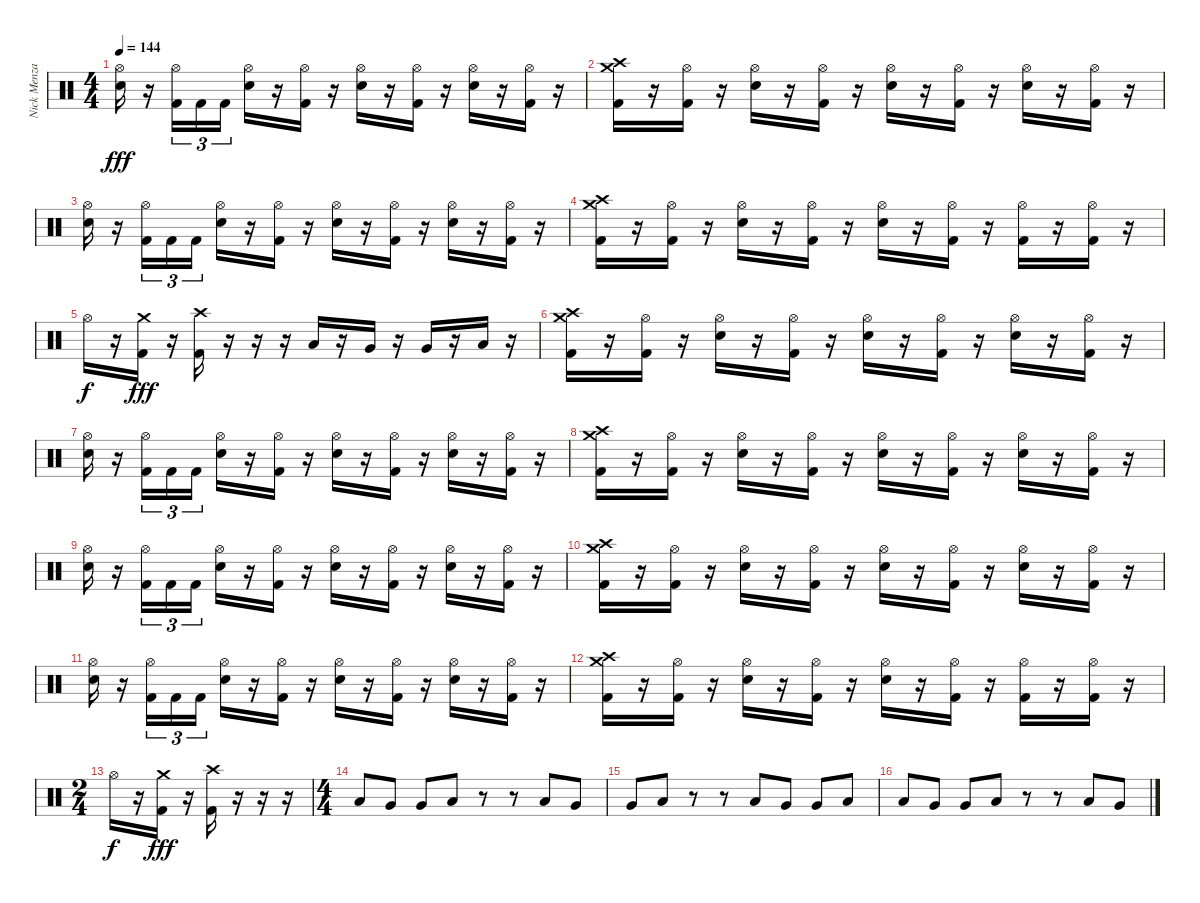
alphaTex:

\track ("Nick Menza" "Nick Menza") {instrument percussion}
\staff {score}
\articulation defaults
\ts (4 4)
\tempo 144
\clef neutral
\ks c
("Electric Snare (hit)" "Hi-Hat (open)").16{dy fff} r.16 ("Kick (hit) 2" "Hi-Hat (open)").16{tu (3 2)} "Kick (hit) 2".16{tu (3 2)} "Kick (hit) 2".16{tu (3 2)} ("Electric Snare (hit)" "Hi-Hat (open)").16 r.16 ("Kick (hit) 2" "Hi-Hat (open)").16 r.16 ("Electric Snare (hit)" "Hi-Hat (open)").16 r.16 ("Kick (hit) 2" "Hi-Hat (open)").16 r.16 ("Electric Snare (hit)" "Hi-Hat (open)").16 r.16 ("Kick (hit) 2" "Hi-Hat (open)").16 r.16 |
("Kick (hit) 2" "Crash high (hit)" "Crash medium (hit)").16 r.16 ("Kick (hit) 2" "Hi-Hat (open)").16 r.16 ("Electric Snare (hit)" "Hi-Hat (open)").16 r.16 ("Kick (hit) 2" "Hi-Hat (open)").16 r.16 ("Electric Snare (hit)" "Hi-Hat (open)").16 r.16 ("Kick (hit) 2" "Hi-Hat (open)").16 r.16 ("Electric Snare (hit)" "Hi-Hat (open)").16 r.16 ("Kick (hit) 2" "Hi-Hat (open)").16 r.16 |
("Electric Snare (hit)" "Hi-Hat (open)").16 r.16 ("Kick (hit) 2" "Hi-Hat (open)").16{tu (3 2)} "Kick (hit) 2".16{tu (3 2)} "Kick (hit) 2".16{tu (3 2)} ("Electric Snare (hit)" "Hi-Hat (open)").16 r.16 ("Kick (hit) 2" "Hi-Hat (open)").16 r.16 ("Electric Snare (hit)" "Hi-Hat (open)").16 r.16 ("Kick (hit) 2" "Hi-Hat (open)").16 r.16 ("Electric Snare (hit)" "Hi-Hat (open)").16 r.16 ("Kick (hit) 2" "Hi-Hat (open)").16 r.16 |
("Kick (hit) 2" "Crash high (hit)" "Crash medium (hit)").16 r.16 ("Kick (hit) 2" "Hi-Hat (open)").16 r.16 ("Electric Snare (hit)" "Hi-Hat (open)").16 r.16 ("Kick (hit) 2" "Hi-Hat (open)").16 r.16 ("Electric Snare (hit)" "Hi-Hat (open)").16 r.16 ("Kick (hit) 2" "Hi-Hat (open)").16 r.16 ("Kick (hit) 2" "Hi-Hat (open)").16 r.16 ("Kick (hit) 2" "Hi-Hat (open)").16 r.16 |
"Hi-Hat (open)".16{dy f} r.16 ("Kick (hit) 2" "Crash medium (hit)").16{dy fff} r.16 ("Kick (hit) 2" "Crash high (hit)").16 r.16 r.16 r.16 "Low Tom (hit)".16 r.16 "Very Low Tom (hit)".16 r.16 "Very Low Tom (hit)".16 r.16 "Low Floor Tom (hit)".16 r.16 |
("Kick (hit) 2" "Crash high (hit)" "Crash medium (hit)").16 r.16 ("Kick (hit) 2" "Hi-Hat (open)").16 r.16 ("Electric Snare (hit)" "Hi-Hat (open)").16 r.16 ("Kick (hit) 2" "Hi-Hat (open)").16 r.16 ("Electric Snare (hit)" "Hi-Hat (open)").16 r.16 ("Kick (hit) 2" "Hi-Hat (open)").16 r.16 ("Electric Snare (hit)" "Hi-Hat (open)").16 r.16 ("Kick (hit) 2" "Hi-Hat (open)").16 r.16 |
("Electric Snare (hit)" "Hi-Hat (open)").16 r.16 ("Kick (hit) 2" "Hi-Hat (open)").16{tu (3 2)} "Kick (hit) 2".16{tu (3 2)} "Kick (hit) 2".16{tu (3 2)} ("Electric Snare (hit)" "Hi-Hat (open)").16 r.16 ("Kick (hit) 2" "Hi-Hat (open)").16 r.16 ("Electric Snare (hit)" "Hi-Hat (open)").16 r.16 ("Kick (hit) 2" "Hi-Hat (open)").16 r.16 ("Electric Snare (hit)" "Hi-Hat (open)").16 r.16 ("Kick (hit) 2" "Hi-Hat (open)").16 r.16 |
("Kick (hit) 2" "Crash high (hit)" "Crash medium (hit)").16 r.16 ("Kick (hit) 2" "Hi-Hat (open)").16 r.16 ("Electric Snare (hit)" "Hi-Hat (open)").16 r.16 ("Kick (hit) 2" "Hi-Hat (open)").16 r.16 ("Electric Snare (hit)" "Hi-Hat (open)").16 r.16 ("Kick (hit) 2" "Hi-Hat (open)").16 r.16 ("Electric Snare (hit)" "Hi-Hat (open)").16 r.16 ("Kick (hit) 2" "Hi-Hat (open)").16 r.16 |
("Electric Snare (hit)" "Hi-Hat (open)").16 r.16 ("Kick (hit) 2" "Hi-Hat (open)").16{tu (3 2)} "Kick (hit) 2".16{tu (3 2)} "Kick (hit) 2".16{tu (3 2)} ("Electric Snare (hit)" "Hi-Hat (open)").16 r.16 ("Kick (hit) 2" "Hi-Hat (open)").16 r.16 ("Electric Snare (hit)" "Hi-Hat (open)").16 r.16 ("Kick (hit) 2" "Hi-Hat (open)").16 r.16 ("Electric Snare (hit)" "Hi-Hat (open)").16 r.16 ("Kick (hit) 2" "Hi-Hat (open)").16 r.16 |
("Kick (hit) 2" "Crash high (hit)" "Crash medium (hit)").16 r.16 ("Kick (hit) 2" "Hi-Hat (open)").16 r.16 ("Electric Snare (hit)" "Hi-Hat (open)").16 r.16 ("Kick (hit) 2" "Hi-Hat (open)").16 r.16 ("Electric Snare (hit)" "Hi-Hat (open)").16 r.16 ("Kick (hit) 2" "Hi-Hat (open)").16 r.16 ("Electric Snare (hit)" "Hi-Hat (open)").16 r.16 ("Kick (hit) 2" "Hi-Hat (open)").16 r.16 |
("Electric Snare (hit)" "Hi-Hat (open)").16 r.16 ("Kick (hit) 2" "Hi-Hat (open)").16{tu (3 2)} "Kick (hit) 2".16{tu (3 2)} "Kick (hit) 2".16{tu (3 2)} ("Electric Snare (hit)" "Hi-Hat (open)").16 r.16 ("Kick (hit) 2" "Hi-Hat (open)").16 r.16 ("Electric Snare (hit)" "Hi-Hat (open)").16 r.16 ("Kick (hit) 2" "Hi-Hat (open)").16 r.16 ("Electric Snare (hit)" "Hi-Hat (open)").16 r.16 ("Kick (hit) 2" "Hi-Hat (open)").16 r.16 |
("Kick (hit) 2" "Crash high (hit)" "Crash medium (hit)").16 r.16 ("Kick (hit) 2" "Hi-Hat (open)").16 r.16 ("Electric Snare (hit)" "Hi-Hat (open)").16 r.16 ("Kick (hit) 2" "Hi-Hat (open)").16 r.16 ("Electric Snare (hit)" "Hi-Hat (open)").16 r.16 ("Kick (hit) 2" "Hi-Hat (open)").16 r.16 ("Kick (hit) 2" "Hi-Hat (open)").16 r.16 ("Kick (hit) 2" "Hi-Hat (open)").16 r.16 |
\ts (2 4)
"Hi-Hat (open)".16{dy f} r.16 ("Kick (hit) 2" "Crash medium (hit)").16{dy fff} r.16 ("Kick (hit) 2" "Crash high (hit)").16 r.16 r.16 r.16 |
\ts (4 4)
"Low Tom (hit)".8 "Very Low Tom (hit)".8 "Very Low Tom (hit)".8 "Low Floor Tom (hit)".8 r.8 r.8 "Low Tom (hit)".8 "Very Low Tom (hit)".8 |
"Very Low Tom (hit)".8 "Low Floor Tom (hit)".8 r.8 r.8 "Low Tom (hit)".8 "Very Low Tom (hit)".8 "Very Low Tom (hit)".8 "Low Floor Tom (hit)".8 |
"Low Tom (hit)".8 "Very Low Tom (hit)".8 "Very Low Tom (hit)".8 "Low Floor Tom (hit)".8 r.8 r.8 "Low Tom (hit)".8 "Very Low Tom (hit)".8
